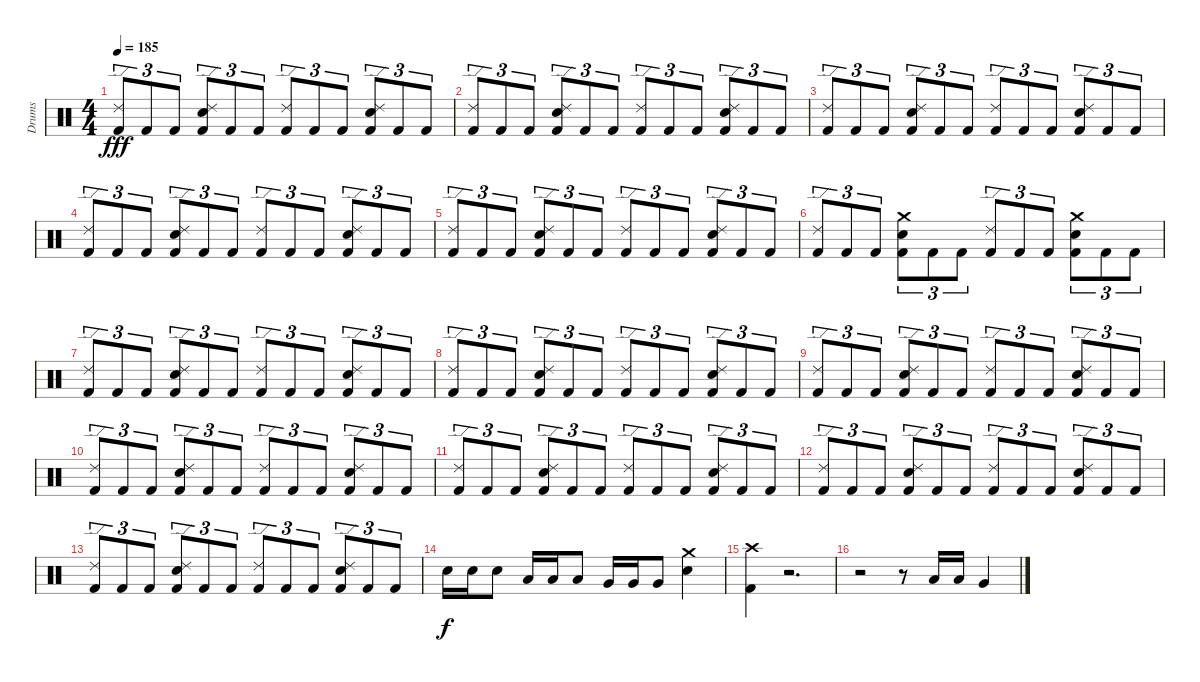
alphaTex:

\track ("Drums" "Drums") {instrument percussion}
\staff {score}
\articulation defaults
\ts (4 4)
\tempo 185
\clef neutral
\ks c
("Kick (hit) 2" "Ride (edge) 2").8{tu (3 2) dy fff} "Kick (hit) 2".8{tu (3 2)} "Kick (hit) 2".8{tu (3 2)} ("Kick (hit) 2" "Snare (hit) 2" "Ride (edge) 2").8{tu (3 2)} "Kick (hit) 2".8{tu (3 2)} "Kick (hit) 2".8{tu (3 2)} ("Kick (hit) 2" "Ride (edge) 2").8{tu (3 2)} "Kick (hit) 2".8{tu (3 2)} "Kick (hit) 2".8{tu (3 2)} ("Kick (hit) 2" "Snare (hit) 2" "Ride (edge) 2").8{tu (3 2)} "Kick (hit) 2".8{tu (3 2)} "Kick (hit) 2".8{tu (3 2)} |
("Kick (hit) 2" "Ride (edge) 2").8{tu (3 2)} "Kick (hit) 2".8{tu (3 2)} "Kick (hit) 2".8{tu (3 2)} ("Kick (hit) 2" "Snare (hit) 2" "Ride (edge) 2").8{tu (3 2)} "Kick (hit) 2".8{tu (3 2)} "Kick (hit) 2".8{tu (3 2)} ("Kick (hit) 2" "Ride (edge) 2").8{tu (3 2)} "Kick (hit) 2".8{tu (3 2)} "Kick (hit) 2".8{tu (3 2)} ("Kick (hit) 2" "Snare (hit) 2" "Ride (edge) 2").8{tu (3 2)} "Kick (hit) 2".8{tu (3 2)} "Kick (hit) 2".8{tu (3 2)} |
("Kick (hit) 2" "Ride (edge) 2").8{tu (3 2)} "Kick (hit) 2".8{tu (3 2)} "Kick (hit) 2".8{tu (3 2)} ("Kick (hit) 2" "Snare (hit) 2" "Ride (edge) 2").8{tu (3 2)} "Kick (hit) 2".8{tu (3 2)} "Kick (hit) 2".8{tu (3 2)} ("Kick (hit) 2" "Ride (edge) 2").8{tu (3 2)} "Kick (hit) 2".8{tu (3 2)} "Kick (hit) 2".8{tu (3 2)} ("Kick (hit) 2" "Snare (hit) 2" "Ride (edge) 2").8{tu (3 2)} "Kick (hit) 2".8{tu (3 2)} "Kick (hit) 2".8{tu (3 2)} |
("Kick (hit) 2" "Ride (edge) 2").8{tu (3 2)} "Kick (hit) 2".8{tu (3 2)} "Kick (hit) 2".8{tu (3 2)} ("Kick (hit) 2" "Snare (hit) 2" "Ride (edge) 2").8{tu (3 2)} "Kick (hit) 2".8{tu (3 2)} "Kick (hit) 2".8{tu (3 2)} ("Kick (hit) 2" "Ride (edge) 2").8{tu (3 2)} "Kick (hit) 2".8{tu (3 2)} "Kick (hit) 2".8{tu (3 2)} ("Kick (hit) 2" "Snare (hit) 2" "Ride (edge) 2").8{tu (3 2)} "Kick (hit) 2".8{tu (3 2)} "Kick (hit) 2".8{tu (3 2)} |
("Kick (hit) 2" "Ride (edge) 2").8{tu (3 2)} "Kick (hit) 2".8{tu (3 2)} "Kick (hit) 2".8{tu (3 2)} ("Kick (hit) 2" "Snare (hit) 2" "Ride (edge) 2").8{tu (3 2)} "Kick (hit) 2".8{tu (3 2)} "Kick (hit) 2".8{tu (3 2)} ("Kick (hit) 2" "Ride (edge) 2").8{tu (3 2)} "Kick (hit) 2".8{tu (3 2)} "Kick (hit) 2".8{tu (3 2)} ("Kick (hit) 2" "Snare (hit) 2" "Ride (edge) 2").8{tu (3 2)} "Kick (hit) 2".8{tu (3 2)} "Kick (hit) 2".8{tu (3 2)} |
("Kick (hit) 2" "Ride (edge) 2").8{tu (3 2)} "Kick (hit) 2".8{tu (3 2)} "Kick (hit) 2".8{tu (3 2)} ("Kick (hit) 2" "Snare (hit) 2" "Crash medium (hit)").8{tu (3 2)} "Kick (hit) 2".8{tu (3 2)} "Kick (hit) 2".8{tu (3 2)} ("Kick (hit) 2" "Ride (edge) 2").8{tu (3 2)} "Kick (hit) 2".8{tu (3 2)} "Kick (hit) 2".8{tu (3 2)} ("Kick (hit) 2" "Snare (hit) 2" "Crash medium (hit)").8{tu (3 2)} "Kick (hit) 2".8{tu (3 2)} "Kick (hit) 2".8{tu (3 2)} |
("Kick (hit) 2" "Ride (edge) 2").8{tu (3 2)} "Kick (hit) 2".8{tu (3 2)} "Kick (hit) 2".8{tu (3 2)} ("Kick (hit) 2" "Snare (hit) 2" "Ride (edge) 2").8{tu (3 2)} "Kick (hit) 2".8{tu (3 2)} "Kick (hit) 2".8{tu (3 2)} ("Kick (hit) 2" "Ride (edge) 2").8{tu (3 2)} "Kick (hit) 2".8{tu (3 2)} "Kick (hit) 2".8{tu (3 2)} ("Kick (hit) 2" "Snare (hit) 2" "Ride (edge) 2").8{tu (3 2)} "Kick (hit) 2".8{tu (3 2)} "Kick (hit) 2".8{tu (3 2)} |
("Kick (hit) 2" "Ride (edge) 2").8{tu (3 2)} "Kick (hit) 2".8{tu (3 2)} "Kick (hit) 2".8{tu (3 2)} ("Kick (hit) 2" "Snare (hit) 2" "Ride (edge) 2").8{tu (3 2)} "Kick (hit) 2".8{tu (3 2)} "Kick (hit) 2".8{tu (3 2)} ("Kick (hit) 2" "Ride (edge) 2").8{tu (3 2)} "Kick (hit) 2".8{tu (3 2)} "Kick (hit) 2".8{tu (3 2)} ("Kick (hit) 2" "Snare (hit) 2" "Ride (edge) 2").8{tu (3 2)} "Kick (hit) 2".8{tu (3 2)} "Kick (hit) 2".8{tu (3 2)} |
("Kick (hit) 2" "Ride (edge) 2").8{tu (3 2)} "Kick (hit) 2".8{tu (3 2)} "Kick (hit) 2".8{tu (3 2)} ("Kick (hit) 2" "Snare (hit) 2" "Ride (edge) 2").8{tu (3 2)} "Kick (hit) 2".8{tu (3 2)} "Kick (hit) 2".8{tu (3 2)} ("Kick (hit) 2" "Ride (edge) 2").8{tu (3 2)} "Kick (hit) 2".8{tu (3 2)} "Kick (hit) 2".8{tu (3 2)} ("Kick (hit) 2" "Snare (hit) 2" "Ride (edge) 2").8{tu (3 2)} "Kick (hit) 2".8{tu (3 2)} "Kick (hit) 2".8{tu (3 2)} |
("Kick (hit) 2" "Ride (edge) 2").8{tu (3 2)} "Kick (hit) 2".8{tu (3 2)} "Kick (hit) 2".8{tu (3 2)} ("Kick (hit) 2" "Snare (hit) 2" "Ride (edge) 2").8{tu (3 2)} "Kick (hit) 2".8{tu (3 2)} "Kick (hit) 2".8{tu (3 2)} ("Kick (hit) 2" "Ride (edge) 2").8{tu (3 2)} "Kick (hit) 2".8{tu (3 2)} "Kick (hit) 2".8{tu (3 2)} ("Kick (hit) 2" "Snare (hit) 2" "Ride (edge) 2").8{tu (3 2)} "Kick (hit) 2".8{tu (3 2)} "Kick (hit) 2".8{tu (3 2)} |
("Kick (hit) 2" "Ride (edge) 2").8{tu (3 2)} "Kick (hit) 2".8{tu (3 2)} "Kick (hit) 2".8{tu (3 2)} ("Kick (hit) 2" "Snare (hit) 2" "Ride (edge) 2").8{tu (3 2)} "Kick (hit) 2".8{tu (3 2)} "Kick (hit) 2".8{tu (3 2)} ("Kick (hit) 2" "Ride (edge) 2").8{tu (3 2)} "Kick (hit) 2".8{tu (3 2)} "Kick (hit) 2".8{tu (3 2)} ("Kick (hit) 2" "Snare (hit) 2" "Ride (edge) 2").8{tu (3 2)} "Kick (hit) 2".8{tu (3 2)} "Kick (hit) 2".8{tu (3 2)} |
("Kick (hit) 2" "Ride (edge) 2").8{tu (3 2)} "Kick (hit) 2".8{tu (3 2)} "Kick (hit) 2".8{tu (3 2)} ("Kick (hit) 2" "Snare (hit) 2" "Ride (edge) 2").8{tu (3 2)} "Kick (hit) 2".8{tu (3 2)} "Kick (hit) 2".8{tu (3 2)} ("Kick (hit) 2" "Ride (edge) 2").8{tu (3 2)} "Kick (hit) 2".8{tu (3 2)} "Kick (hit) 2".8{tu (3 2)} ("Kick (hit) 2" "Snare (hit) 2" "Ride (edge) 2").8{tu (3 2)} "Kick (hit) 2".8{tu (3 2)} "Kick (hit) 2".8{tu (3 2)} |
("Kick (hit) 2" "Ride (edge) 2").8{tu (3 2)} "Kick (hit) 2".8{tu (3 2)} "Kick (hit) 2".8{tu (3 2)} ("Kick (hit) 2" "Snare (hit) 2" "Ride (edge) 2").8{tu (3 2)} "Kick (hit) 2".8{tu (3 2)} "Kick (hit) 2".8{tu (3 2)} ("Kick (hit) 2" "Ride (edge) 2").8{tu (3 2)} "Kick (hit) 2".8{tu (3 2)} "Kick (hit) 2".8{tu (3 2)} ("Kick (hit) 2" "Snare (hit) 2" "Ride (edge) 2").8{tu (3 2)} "Kick (hit) 2".8{tu (3 2)} "Kick (hit) 2".8{tu (3 2)} |
"Snare (hit) 2".16{dy f} "Snare (hit) 2".16 "Snare (hit) 2".8 "Low Tom (hit)".16 "Low Tom (hit)".16 "Low Tom (hit)".8 "Very Low Tom (hit)".16 "Very Low Tom (hit)".16 "Very Low Tom (hit)".8 ("Snare (hit) 2" "Crash medium (hit)").4 |
("Kick (hit) 2" "Crash high (hit)").4 r.2{d} |
r.2 r.8 "Low Tom (hit)".16 "Low Tom (hit)".16 "Very Low Tom (hit)".4
